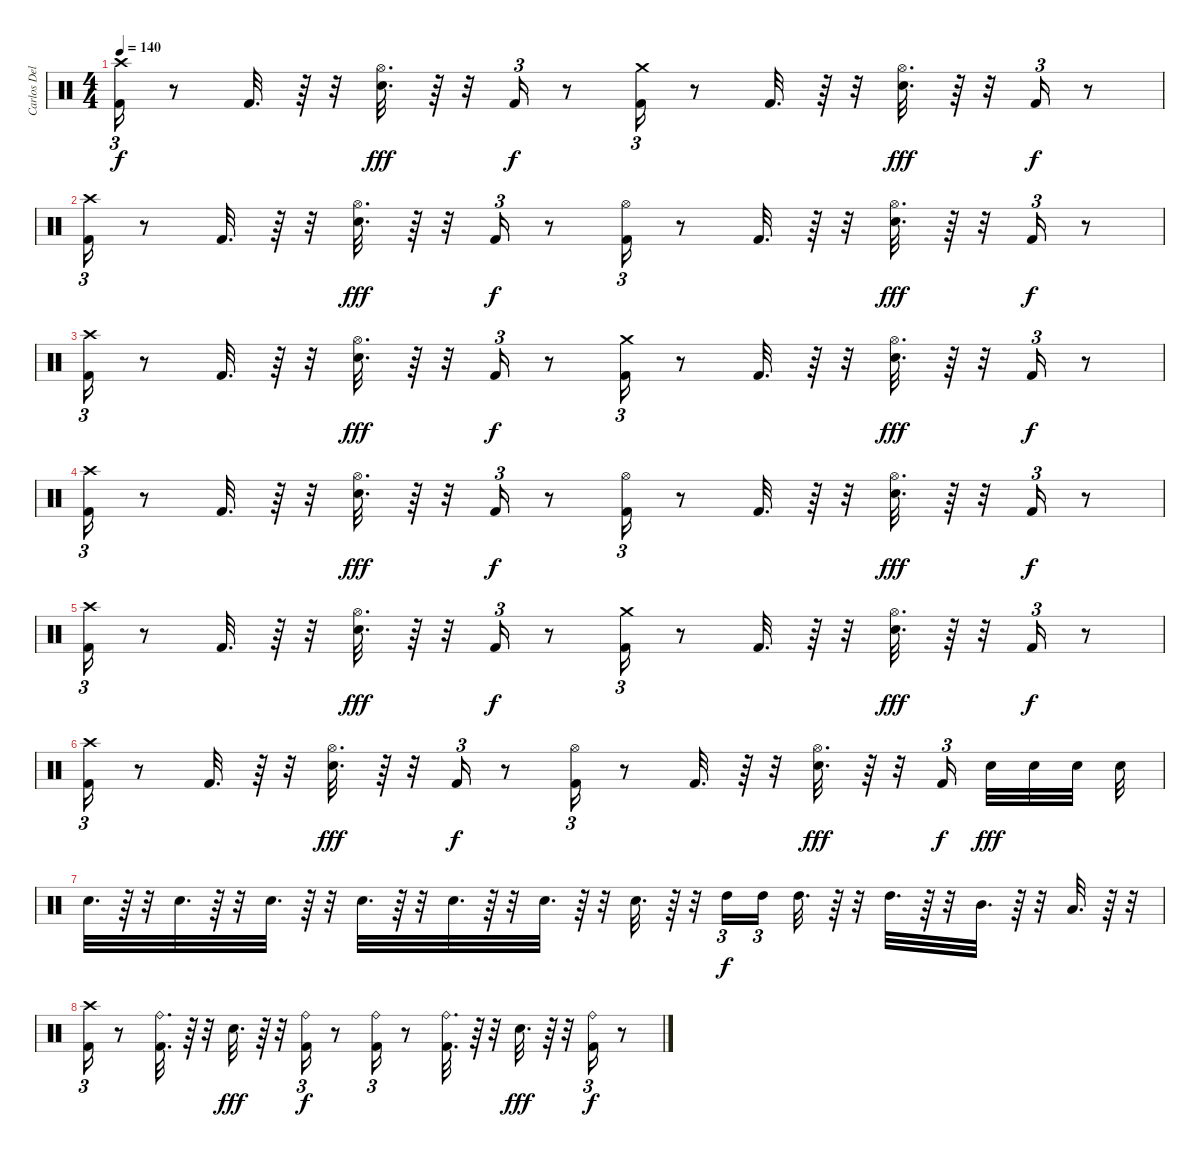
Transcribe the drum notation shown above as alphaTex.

\track ("Carlos Delgado" "Carlos Del") {instrument percussion}
\staff {score}
\articulation defaults
\ts (4 4)
\tempo 140
\clef neutral
\ks c
("Kick (hit) 2" "Crash high (hit)").16{tu (3 2) dy f} r.8 "Kick (hit) 2".32{d} r.64 r.32 ("Hi-Hat (open)" "Electric Snare (hit)").32{d dy fff} r.64 r.32 "Kick (hit) 2".16{tu (3 2) dy f} r.8 ("Kick (hit) 2" "Crash medium (hit)").16{tu (3 2)} r.8 "Kick (hit) 2".32{d} r.64 r.32 ("Hi-Hat (open)" "Electric Snare (hit)").32{d dy fff} r.64 r.32 "Kick (hit) 2".16{tu (3 2) dy f} r.8 |
("Kick (hit) 2" "Crash high (hit)").16{tu (3 2)} r.8 "Kick (hit) 2".32{d} r.64 r.32 ("Hi-Hat (open)" "Electric Snare (hit)").32{d dy fff} r.64 r.32 "Kick (hit) 2".16{tu (3 2) dy f} r.8 ("Kick (hit) 2" "Hi-Hat (open)").16{tu (3 2)} r.8 "Kick (hit) 2".32{d} r.64 r.32 ("Hi-Hat (open)" "Electric Snare (hit)").32{d dy fff} r.64 r.32 "Kick (hit) 2".16{tu (3 2) dy f} r.8 |
("Kick (hit) 2" "Crash high (hit)").16{tu (3 2)} r.8 "Kick (hit) 2".32{d} r.64 r.32 ("Hi-Hat (open)" "Electric Snare (hit)").32{d dy fff} r.64 r.32 "Kick (hit) 2".16{tu (3 2) dy f} r.8 ("Crash medium (hit)" "Kick (hit) 2").16{tu (3 2)} r.8 "Kick (hit) 2".32{d} r.64 r.32 ("Electric Snare (hit)" "Hi-Hat (open)").32{d dy fff} r.64 r.32 "Kick (hit) 2".16{tu (3 2) dy f} r.8 |
("Kick (hit) 2" "Crash high (hit)").16{tu (3 2)} r.8 "Kick (hit) 2".32{d} r.64 r.32 ("Hi-Hat (open)" "Electric Snare (hit)").32{d dy fff} r.64 r.32 "Kick (hit) 2".16{tu (3 2) dy f} r.8 ("Hi-Hat (open)" "Kick (hit) 2").16{tu (3 2)} r.8 "Kick (hit) 2".32{d} r.64 r.32 ("Electric Snare (hit)" "Hi-Hat (open)").32{d dy fff} r.64 r.32 "Kick (hit) 2".16{tu (3 2) dy f} r.8 |
("Kick (hit) 2" "Crash high (hit)").16{tu (3 2)} r.8 "Kick (hit) 2".32{d} r.64 r.32 ("Hi-Hat (open)" "Electric Snare (hit)").32{d dy fff} r.64 r.32 "Kick (hit) 2".16{tu (3 2) dy f} r.8 ("Crash medium (hit)" "Kick (hit) 2").16{tu (3 2)} r.8 "Kick (hit) 2".32{d} r.64 r.32 ("Hi-Hat (open)" "Electric Snare (hit)").32{d dy fff} r.64 r.32 "Kick (hit) 2".16{tu (3 2) dy f} r.8 |
("Kick (hit) 2" "Crash high (hit)").16{tu (3 2)} r.8 "Kick (hit) 2".32{d} r.64 r.32 ("Electric Snare (hit)" "Hi-Hat (open)").32{d dy fff} r.64 r.32 "Kick (hit) 2".16{tu (3 2) dy f} r.8 ("Kick (hit) 2" "Hi-Hat (open)").16{tu (3 2)} r.8 "Kick (hit) 2".32{d} r.64 r.32 ("Electric Snare (hit)" "Hi-Hat (open)").32{d dy fff} r.64 r.32 "Kick (hit) 2".16{tu (3 2) dy f beam splitsecondary} "Electric Snare (hit)".32{dy fff} "Electric Snare (hit)".32 "Electric Snare (hit)".32 "Electric Snare (hit)".32 |
"Electric Snare (hit)".32{d} r.64 r.32 "Electric Snare (hit)".32{d} r.64 r.32 "Electric Snare (hit)".32{d} r.64 r.32 "Electric Snare (hit)".32{d} r.64 r.32 "Electric Snare (hit)".32{d} r.64 r.32 "Electric Snare (hit)".32{d} r.64 r.32 "Electric Snare (hit)".32{d} r.64 r.32 "High Tom (hit)".16{tu (3 2) dy f} "High Tom (hit)".16{tu (3 2) beam splitsecondary} "High Tom (hit)".32{d} r.64 r.32 "High Tom (hit)".32{d} r.64 r.32 "Mid Tom (hit)".32{d} r.64 r.32 "Low Tom (hit)".32{d} r.64 r.32 |
("Kick (hit) 2" "Crash high (hit)").16{tu (3 2)} r.8 ("Ride (bell)" "Kick (hit) 2").32{d} r.64 r.32 "Electric Snare (hit)".32{d dy fff} r.64 r.32 ("Ride (bell)" "Kick (hit) 2").16{tu (3 2) dy f} r.8 ("Ride (bell)" "Kick (hit) 2").16{tu (3 2)} r.8 ("Ride (bell)" "Kick (hit) 2").32{d} r.64 r.32 "Electric Snare (hit)".32{d dy fff} r.64 r.32 ("Ride (bell)" "Kick (hit) 2").16{tu (3 2) dy f} r.8
